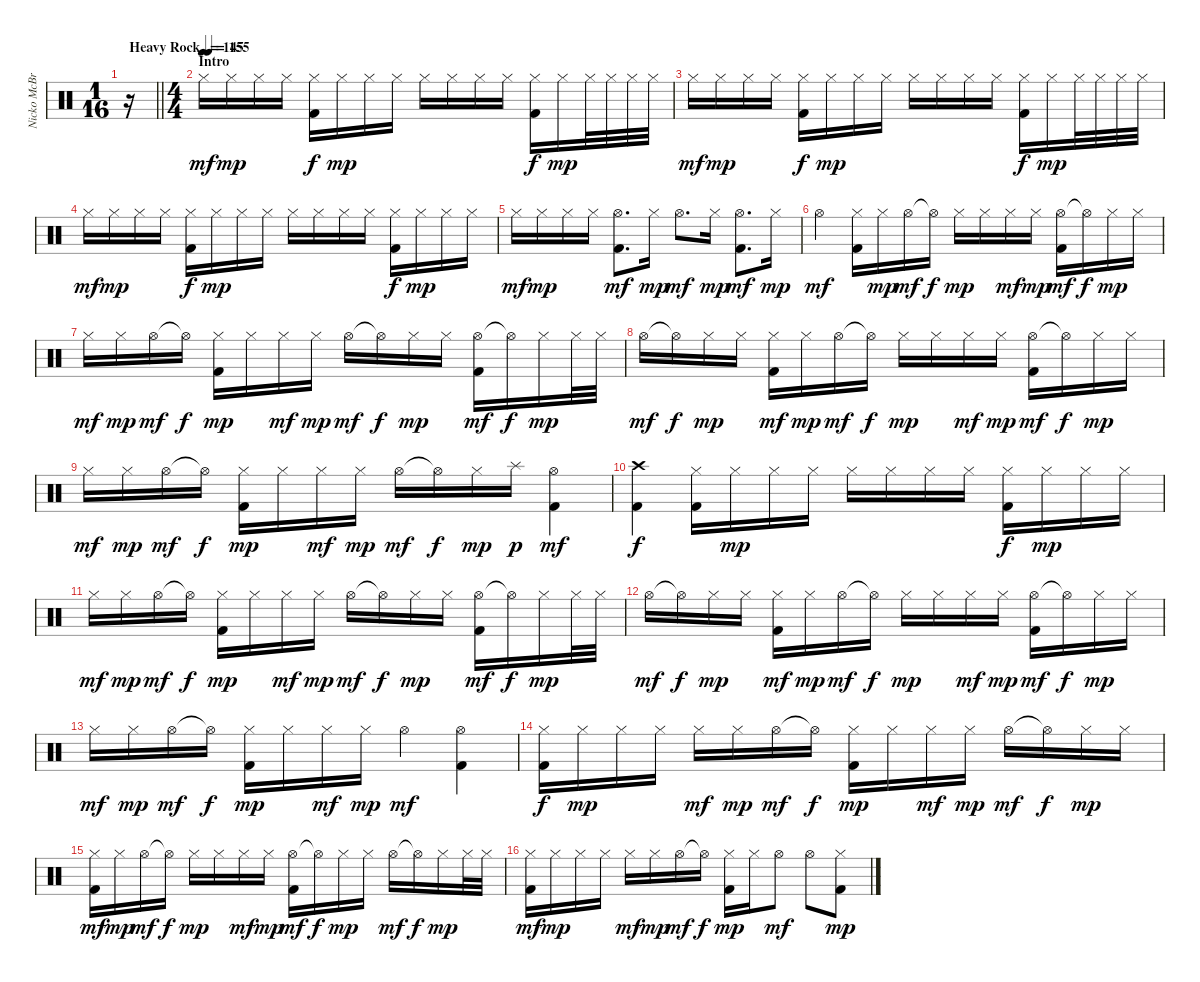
\track ("Nicko McBrain" "Nicko McBr") {instrument percussion}
\staff {score}
\articulation defaults
\ts (1 16)
\tempo (155 "Heavy Rock")
\clef neutral
\barLineRight lightlight
\ks c
r.16{dy mf} |
\ts (4 4)
\section ("" "Intro")
\tempo (145)
"Hi-Hat (closed)".16 "Hi-Hat (closed)".16{dy mp} "Hi-Hat (closed)".16 "Hi-Hat (closed)".16 ("Hi-Hat (closed)" "Kick (hit) 2").16{dy f} "Hi-Hat (closed)".16{dy mp} "Hi-Hat (closed)".16 "Hi-Hat (closed)".16 "Hi-Hat (closed)".16 "Hi-Hat (closed)".16 "Hi-Hat (closed)".16 "Hi-Hat (closed)".16 ("Hi-Hat (closed)" "Kick (hit) 2").16{dy f} "Hi-Hat (closed)".16{dy mp} "Hi-Hat (closed)".32 "Hi-Hat (closed)".32 "Hi-Hat (closed)".32 "Hi-Hat (closed)".32 |
"Hi-Hat (closed)".16{dy mf} "Hi-Hat (closed)".16{dy mp} "Hi-Hat (closed)".16 "Hi-Hat (closed)".16 ("Hi-Hat (closed)" "Kick (hit) 2").16{dy f} "Hi-Hat (closed)".16{dy mp} "Hi-Hat (closed)".16 "Hi-Hat (closed)".16 "Hi-Hat (closed)".16 "Hi-Hat (closed)".16 "Hi-Hat (closed)".16 "Hi-Hat (closed)".16 ("Hi-Hat (closed)" "Kick (hit) 2").16{dy f} "Hi-Hat (closed)".16{dy mp} "Hi-Hat (closed)".32 "Hi-Hat (closed)".32 "Hi-Hat (closed)".32 "Hi-Hat (closed)".32 |
"Hi-Hat (closed)".16{dy mf} "Hi-Hat (closed)".16{dy mp} "Hi-Hat (closed)".16 "Hi-Hat (closed)".16 ("Hi-Hat (closed)" "Kick (hit) 2").16{dy f} "Hi-Hat (closed)".16{dy mp} "Hi-Hat (closed)".16 "Hi-Hat (closed)".16 "Hi-Hat (closed)".16 "Hi-Hat (closed)".16 "Hi-Hat (closed)".16 "Hi-Hat (closed)".16 ("Hi-Hat (closed)" "Kick (hit) 2").16{dy f} "Hi-Hat (closed)".16{dy mp} "Hi-Hat (closed)".16 "Hi-Hat (closed)".16 |
"Hi-Hat (closed)".16{dy mf} "Hi-Hat (closed)".16{dy mp} "Hi-Hat (closed)".16 "Hi-Hat (closed)".16 ("Hi-Hat (open)" "Kick (hit) 2").8{d dy mf} "Hi-Hat (closed)".16{dy mp} "Hi-Hat (open)".8{d dy mf} "Hi-Hat (closed)".16{dy mp} ("Hi-Hat (open)" "Kick (hit) 2").8{d dy mf} "Hi-Hat (closed)".16{dy mp} |
"Hi-Hat (open)".4{dy mf} ("Hi-Hat (closed)" "Kick (hit) 2").16 "Hi-Hat (closed)".16{dy mp} "Hi-Hat (open)".16{dy mf} "Hi-Hat (open)"{t}.16{dy f} "Hi-Hat (closed)".16{dy mp} "Hi-Hat (closed)".16 "Hi-Hat (closed)".16{dy mf} "Hi-Hat (closed)".16{dy mp} ("Hi-Hat (open)" "Kick (hit) 2").16{dy mf} "Hi-Hat (open)"{t}.16{dy f} "Hi-Hat (closed)".16{dy mp} "Hi-Hat (closed)".16 |
"Hi-Hat (closed)".16{dy mf} "Hi-Hat (closed)".16{dy mp} "Hi-Hat (open)".16{dy mf} "Hi-Hat (open)"{t}.16{dy f} ("Hi-Hat (closed)" "Kick (hit) 2").16{dy mp} "Hi-Hat (closed)".16 "Hi-Hat (closed)".16{dy mf} "Hi-Hat (closed)".16{dy mp} "Hi-Hat (open)".16{dy mf} "Hi-Hat (open)"{t}.16{dy f} "Hi-Hat (closed)".16{dy mp} "Hi-Hat (closed)".16 ("Hi-Hat (open)" "Kick (hit) 2").16{dy mf} "Hi-Hat (open)"{t}.16{dy f} "Hi-Hat (closed)".16{dy mp} "Hi-Hat (closed)".32 "Hi-Hat (closed)".32 |
"Hi-Hat (open)".16{dy mf} "Hi-Hat (open)"{t}.16{dy f} "Hi-Hat (closed)".16{dy mp} "Hi-Hat (closed)".16 ("Hi-Hat (closed)" "Kick (hit) 2").16{dy mf} "Hi-Hat (closed)".16{dy mp} "Hi-Hat (open)".16{dy mf} "Hi-Hat (open)"{t}.16{dy f} "Hi-Hat (closed)".16{dy mp} "Hi-Hat (closed)".16 "Hi-Hat (closed)".16{dy mf} "Hi-Hat (closed)".16{dy mp} ("Hi-Hat (open)" "Kick (hit) 2").16{dy mf} "Hi-Hat (open)"{t}.16{dy f} "Hi-Hat (closed)".16{dy mp} "Hi-Hat (closed)".16 |
"Hi-Hat (closed)".16{dy mf} "Hi-Hat (closed)".16{dy mp} "Hi-Hat (open)".16{dy mf} "Hi-Hat (open)"{t}.16{dy f} ("Hi-Hat (closed)" "Kick (hit) 2").16{dy mp} "Hi-Hat (closed)".16 "Hi-Hat (closed)".16{dy mf} "Hi-Hat (closed)".16{dy mp} "Hi-Hat (open)".16{dy mf} "Hi-Hat (open)"{t}.16{dy f} "Hi-Hat (closed)".16{dy mp} "Splash (hit)".16{dy p} ("Hi-Hat (open)" "Kick (hit) 2").4{dy mf} |
("Crash high (hit)" "Kick (hit) 2").4{dy f} ("Hi-Hat (closed)" "Kick (hit) 2").16 "Hi-Hat (closed)".16{dy mp} "Hi-Hat (closed)".16 "Hi-Hat (closed)".16 "Hi-Hat (closed)".16 "Hi-Hat (closed)".16 "Hi-Hat (closed)".16 "Hi-Hat (closed)".16 ("Hi-Hat (closed)" "Kick (hit) 2").16{dy f} "Hi-Hat (closed)".16{dy mp} "Hi-Hat (closed)".16 "Hi-Hat (closed)".16 |
"Hi-Hat (closed)".16{dy mf} "Hi-Hat (closed)".16{dy mp} "Hi-Hat (open)".16{dy mf} "Hi-Hat (open)"{t}.16{dy f} ("Hi-Hat (closed)" "Kick (hit) 2").16{dy mp} "Hi-Hat (closed)".16 "Hi-Hat (closed)".16{dy mf} "Hi-Hat (closed)".16{dy mp} "Hi-Hat (open)".16{dy mf} "Hi-Hat (open)"{t}.16{dy f} "Hi-Hat (closed)".16{dy mp} "Hi-Hat (closed)".16 ("Hi-Hat (open)" "Kick (hit) 2").16{dy mf} "Hi-Hat (open)"{t}.16{dy f} "Hi-Hat (closed)".16{dy mp} "Hi-Hat (closed)".32 "Hi-Hat (closed)".32 |
"Hi-Hat (open)".16{dy mf} "Hi-Hat (open)"{t}.16{dy f} "Hi-Hat (closed)".16{dy mp} "Hi-Hat (closed)".16 ("Hi-Hat (closed)" "Kick (hit) 2").16{dy mf} "Hi-Hat (closed)".16{dy mp} "Hi-Hat (open)".16{dy mf} "Hi-Hat (open)"{t}.16{dy f} "Hi-Hat (closed)".16{dy mp} "Hi-Hat (closed)".16 "Hi-Hat (closed)".16{dy mf} "Hi-Hat (closed)".16{dy mp} ("Hi-Hat (open)" "Kick (hit) 2").16{dy mf} "Hi-Hat (open)"{t}.16{dy f} "Hi-Hat (closed)".16{dy mp} "Hi-Hat (closed)".16 |
"Hi-Hat (closed)".16{dy mf} "Hi-Hat (closed)".16{dy mp} "Hi-Hat (open)".16{dy mf} "Hi-Hat (open)"{t}.16{dy f} ("Hi-Hat (closed)" "Kick (hit) 2").16{dy mp} "Hi-Hat (closed)".16 "Hi-Hat (closed)".16{dy mf} "Hi-Hat (closed)".16{dy mp} "Hi-Hat (open)".4{dy mf} ("Hi-Hat (open)" "Kick (hit) 2").4 |
("Hi-Hat (closed)" "Kick (hit) 2").16{dy f} "Hi-Hat (closed)".16{dy mp} "Hi-Hat (closed)".16 "Hi-Hat (closed)".16 "Hi-Hat (closed)".16{dy mf} "Hi-Hat (closed)".16{dy mp} "Hi-Hat (open)".16{dy mf} "Hi-Hat (open)"{t}.16{dy f} ("Hi-Hat (closed)" "Kick (hit) 2").16{dy mp} "Hi-Hat (closed)".16 "Hi-Hat (closed)".16{dy mf} "Hi-Hat (closed)".16{dy mp} "Hi-Hat (open)".16{dy mf} "Hi-Hat (open)"{t}.16{dy f} "Hi-Hat (closed)".16{dy mp} "Hi-Hat (closed)".16 |
("Hi-Hat (closed)" "Kick (hit) 2").16{dy mf} "Hi-Hat (closed)".16{dy mp} "Hi-Hat (open)".16{dy mf} "Hi-Hat (open)"{t}.16{dy f} "Hi-Hat (closed)".16{dy mp} "Hi-Hat (closed)".16 "Hi-Hat (closed)".16{dy mf} "Hi-Hat (closed)".16{dy mp} ("Hi-Hat (open)" "Kick (hit) 2").16{dy mf} "Hi-Hat (open)"{t}.16{dy f} "Hi-Hat (closed)".16{dy mp} "Hi-Hat (closed)".16 "Hi-Hat (open)".16{dy mf} "Hi-Hat (open)"{t}.16{dy f} "Hi-Hat (closed)".16{dy mp} "Hi-Hat (closed)".32 "Hi-Hat (closed)".32 |
("Hi-Hat (closed)" "Kick (hit) 2").16{dy mf} "Hi-Hat (closed)".16{dy mp} "Hi-Hat (closed)".16 "Hi-Hat (closed)".16 "Hi-Hat (closed)".16{dy mf} "Hi-Hat (closed)".16{dy mp} "Hi-Hat (open)".16{dy mf} "Hi-Hat (open)"{t}.16{dy f} ("Hi-Hat (closed)" "Kick (hit) 2").16{dy mp} "Hi-Hat (closed)".16 "Hi-Hat (open)".8{dy mf} "Hi-Hat (open)".8 ("Hi-Hat (closed)" "Kick (hit) 2").8{dy mp}
